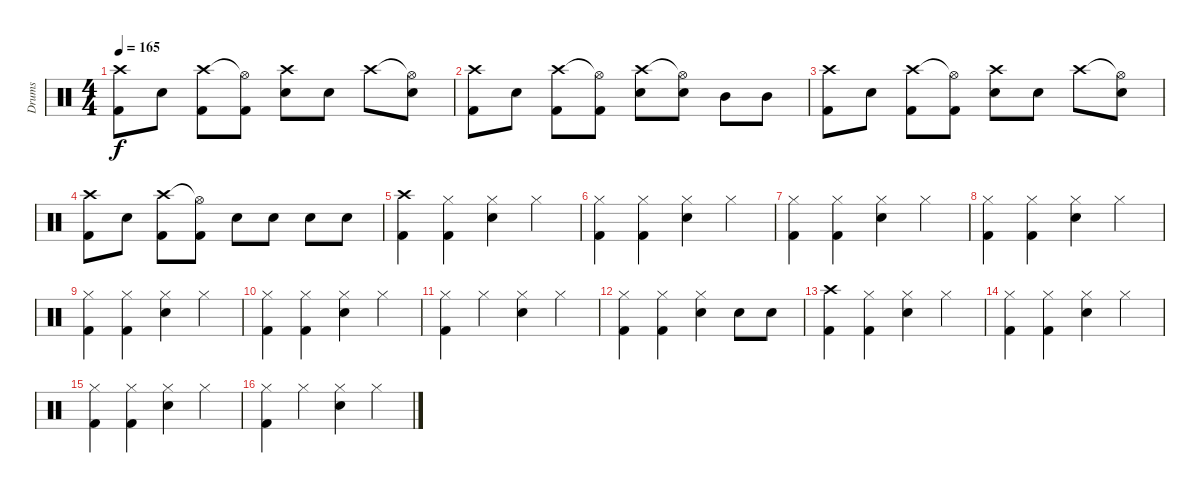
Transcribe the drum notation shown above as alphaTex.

\track ("Drums" "Drums") {instrument percussion}
\staff {score}
\articulation defaults
\ts (4 4)
\tempo 165
\clef neutral
\ks c
("Crash high (hit)" "Kick (hit) 2").8{dy f} "Snare (hit) 2".8 ("Crash high (hit)" "Kick (hit) 2").8 ("Hi-Hat (open)"{t} "Kick (hit) 2").8 ("Crash high (hit)" "Snare (hit) 2").8 "Snare (hit) 2".8 "Crash high (hit)".8 ("Hi-Hat (open)"{t} "Snare (hit) 2").8 |
("Crash high (hit)" "Kick (hit) 2").8 "Snare (hit) 2".8 ("Crash high (hit)" "Kick (hit) 2").8 ("Hi-Hat (open)"{t} "Kick (hit) 2").8 ("Crash high (hit)" "Snare (hit) 2").8 ("Hi-Hat (open)"{t} "Snare (hit) 2").8 "Mid Tom (hit)".8 "Mid Tom (hit)".8 |
("Crash high (hit)" "Kick (hit) 2").8 "Snare (hit) 2".8 ("Crash high (hit)" "Kick (hit) 2").8 ("Hi-Hat (open)"{t} "Kick (hit) 2").8 ("Crash high (hit)" "Snare (hit) 2").8 "Snare (hit) 2".8 "Crash high (hit)".8 ("Hi-Hat (open)"{t} "Snare (hit) 2").8 |
("Crash high (hit)" "Kick (hit) 2").8 "Snare (hit) 2".8 ("Crash high (hit)" "Kick (hit) 2").8 ("Hi-Hat (open)"{t} "Kick (hit) 2").8 "Snare (hit) 2".8 "Snare (hit) 2".8 "Snare (hit) 2".8 "Snare (hit) 2".8 |
("Crash high (hit)" "Kick (hit) 2").4 ("Hi-Hat (closed)" "Kick (hit) 2").4 ("Hi-Hat (closed)" "Snare (hit) 2").4 "Hi-Hat (closed)".4 |
("Hi-Hat (closed)" "Kick (hit) 2").4 ("Hi-Hat (closed)" "Kick (hit) 2").4 ("Hi-Hat (closed)" "Snare (hit) 2").4 "Hi-Hat (closed)".4 |
("Hi-Hat (closed)" "Kick (hit) 2").4 ("Hi-Hat (closed)" "Kick (hit) 2").4 ("Hi-Hat (closed)" "Snare (hit) 2").4 "Hi-Hat (closed)".4 |
("Hi-Hat (closed)" "Kick (hit) 2").4 ("Hi-Hat (closed)" "Kick (hit) 2").4 ("Hi-Hat (closed)" "Snare (hit) 2").4 "Hi-Hat (closed)".4 |
("Hi-Hat (closed)" "Kick (hit) 2").4 ("Hi-Hat (closed)" "Kick (hit) 2").4 ("Hi-Hat (closed)" "Snare (hit) 2").4 "Hi-Hat (closed)".4 |
("Hi-Hat (closed)" "Kick (hit) 2").4 ("Hi-Hat (closed)" "Kick (hit) 2").4 ("Hi-Hat (closed)" "Snare (hit) 2").4 "Hi-Hat (closed)".4 |
("Hi-Hat (closed)" "Kick (hit) 2").4 "Hi-Hat (closed)".4 ("Hi-Hat (closed)" "Snare (hit) 2").4 "Hi-Hat (closed)".4 |
("Hi-Hat (closed)" "Kick (hit) 2").4 ("Hi-Hat (closed)" "Kick (hit) 2").4 ("Hi-Hat (closed)" "Snare (hit) 2").4 "Snare (hit) 2".8 "Snare (hit) 2".8 |
("Crash high (hit)" "Kick (hit) 2").4 ("Hi-Hat (closed)" "Kick (hit) 2").4 ("Hi-Hat (closed)" "Snare (hit) 2").4 "Hi-Hat (closed)".4 |
("Hi-Hat (closed)" "Kick (hit) 2").4 ("Hi-Hat (closed)" "Kick (hit) 2").4 ("Hi-Hat (closed)" "Snare (hit) 2").4 "Hi-Hat (closed)".4 |
("Hi-Hat (closed)" "Kick (hit) 2").4 ("Hi-Hat (closed)" "Kick (hit) 2").4 ("Hi-Hat (closed)" "Snare (hit) 2").4 "Hi-Hat (closed)".4 |
("Hi-Hat (closed)" "Kick (hit) 2").4 "Hi-Hat (closed)".4 ("Hi-Hat (closed)" "Snare (hit) 2").4 "Hi-Hat (closed)".4
